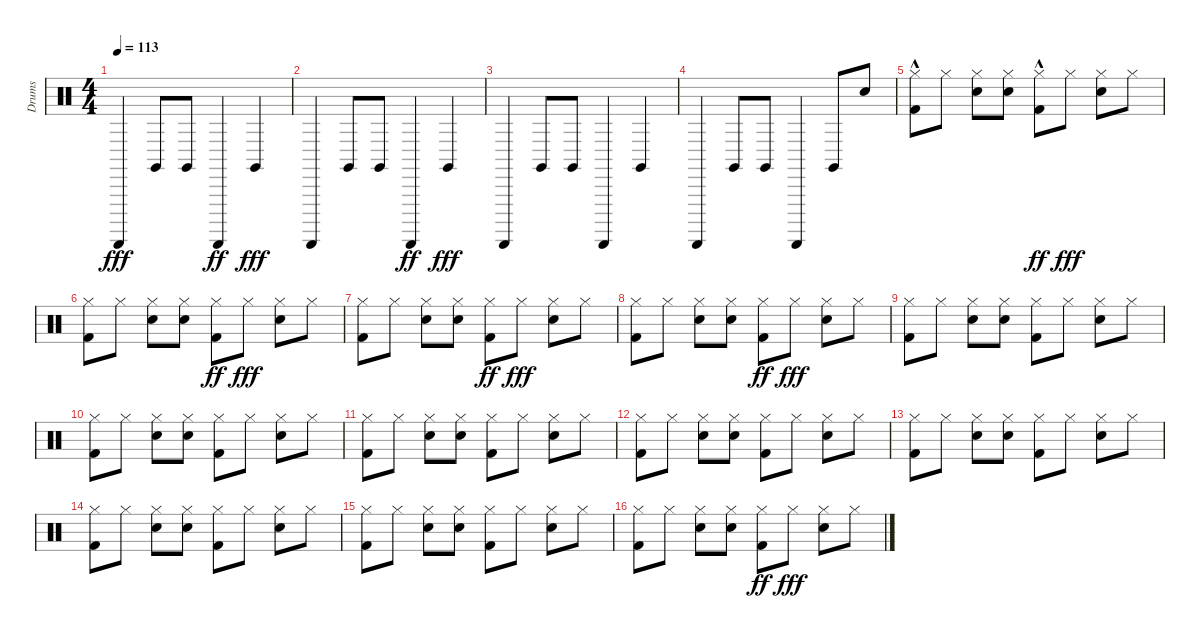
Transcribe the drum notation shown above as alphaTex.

\track ("Drums" "Drums") {instrument percussion}
\staff {score}
\articulation defaults
\ts (4 4)
\tempo 113
\clef neutral
\ks c "Guiro (scrap-return)".4{dy fff} "Claves (hit)".8 "Claves (hit)".8 "Guiro (scrap-return)".4{dy ff} "Claves (hit)".4{dy fff}
|
"Guiro (scrap-return)".4 "Claves (hit)".8 "Claves (hit)".8 "Guiro (scrap-return)".4{dy ff} "Claves (hit)".4{dy fff} |
"Guiro (scrap-return)".4 "Claves (hit)".8 "Claves (hit)".8 "Guiro (scrap-return)".4 "Claves (hit)".4 |
"Guiro (scrap-return)".4{volume 14 balance 8} "Claves (hit)".8 "Claves (hit)".8 "Guiro (scrap-return)".4 "Claves (hit)".8 "Electric Snare (hit)".8 |
("Hi-Hat (closed)" "Kick (hit) 2"{hac}).8 "Hi-Hat (closed)".8 ("Hi-Hat (closed)" "Electric Snare (hit)").8 ("Hi-Hat (closed)" "Electric Snare (hit)").8 ("Hi-Hat (closed)" "Kick (hit) 2"{hac}).8{dy ff} "Hi-Hat (closed)".8{dy fff} ("Hi-Hat (closed)" "Electric Snare (hit)").8 "Hi-Hat (closed)".8 |
("Hi-Hat (closed)" "Kick (hit) 2").8 "Hi-Hat (closed)".8 ("Hi-Hat (closed)" "Electric Snare (hit)").8 ("Hi-Hat (closed)" "Electric Snare (hit)").8 ("Hi-Hat (closed)" "Kick (hit) 2").8{dy ff} "Hi-Hat (closed)".8{dy fff} ("Hi-Hat (closed)" "Electric Snare (hit)").8 "Hi-Hat (closed)".8 |
("Hi-Hat (closed)" "Kick (hit) 2").8 "Hi-Hat (closed)".8 ("Hi-Hat (closed)" "Electric Snare (hit)").8 ("Hi-Hat (closed)" "Electric Snare (hit)").8 ("Hi-Hat (closed)" "Kick (hit) 2").8{dy ff} "Hi-Hat (closed)".8{dy fff} ("Hi-Hat (closed)" "Electric Snare (hit)").8 "Hi-Hat (closed)".8 |
("Hi-Hat (closed)" "Kick (hit) 2").8 "Hi-Hat (closed)".8 ("Hi-Hat (closed)" "Electric Snare (hit)").8 ("Hi-Hat (closed)" "Electric Snare (hit)").8 ("Hi-Hat (closed)" "Kick (hit) 2").8{dy ff} "Hi-Hat (closed)".8{dy fff} ("Hi-Hat (closed)" "Electric Snare (hit)").8 "Hi-Hat (closed)".8 |
("Hi-Hat (closed)" "Kick (hit) 2").8 "Hi-Hat (closed)".8 ("Hi-Hat (closed)" "Electric Snare (hit)").8 ("Hi-Hat (closed)" "Electric Snare (hit)").8 ("Hi-Hat (closed)" "Kick (hit) 2").8 "Hi-Hat (closed)".8 ("Hi-Hat (closed)" "Electric Snare (hit)").8 "Hi-Hat (closed)".8 |
("Hi-Hat (closed)" "Kick (hit) 2").8 "Hi-Hat (closed)".8 ("Hi-Hat (closed)" "Electric Snare (hit)").8 ("Hi-Hat (closed)" "Electric Snare (hit)").8 ("Hi-Hat (closed)" "Kick (hit) 2").8 "Hi-Hat (closed)".8 ("Hi-Hat (closed)" "Electric Snare (hit)").8 "Hi-Hat (closed)".8 |
("Hi-Hat (closed)" "Kick (hit) 2").8 "Hi-Hat (closed)".8 ("Hi-Hat (closed)" "Electric Snare (hit)").8 ("Hi-Hat (closed)" "Electric Snare (hit)").8 ("Hi-Hat (closed)" "Kick (hit) 2").8 "Hi-Hat (closed)".8 ("Hi-Hat (closed)" "Electric Snare (hit)").8 "Hi-Hat (closed)".8 |
("Hi-Hat (closed)" "Kick (hit) 2").8 "Hi-Hat (closed)".8 ("Hi-Hat (closed)" "Electric Snare (hit)").8 ("Hi-Hat (closed)" "Electric Snare (hit)").8 ("Hi-Hat (closed)" "Kick (hit) 2").8 "Hi-Hat (closed)".8 ("Hi-Hat (closed)" "Electric Snare (hit)").8 "Hi-Hat (closed)".8 |
("Hi-Hat (closed)" "Kick (hit) 2").8 "Hi-Hat (closed)".8 ("Hi-Hat (closed)" "Electric Snare (hit)").8 ("Hi-Hat (closed)" "Electric Snare (hit)").8 ("Hi-Hat (closed)" "Kick (hit) 2").8 "Hi-Hat (closed)".8 ("Hi-Hat (closed)" "Electric Snare (hit)").8 "Hi-Hat (closed)".8 |
("Hi-Hat (closed)" "Kick (hit) 2").8 "Hi-Hat (closed)".8 ("Hi-Hat (closed)" "Electric Snare (hit)").8 ("Hi-Hat (closed)" "Electric Snare (hit)").8 ("Hi-Hat (closed)" "Kick (hit) 2").8 "Hi-Hat (closed)".8 ("Hi-Hat (closed)" "Electric Snare (hit)").8 "Hi-Hat (closed)".8 |
("Hi-Hat (closed)" "Kick (hit) 2").8 "Hi-Hat (closed)".8 ("Hi-Hat (closed)" "Electric Snare (hit)").8 ("Hi-Hat (closed)" "Electric Snare (hit)").8 ("Hi-Hat (closed)" "Kick (hit) 2").8 "Hi-Hat (closed)".8 ("Hi-Hat (closed)" "Electric Snare (hit)").8 "Hi-Hat (closed)".8 |
("Hi-Hat (closed)" "Kick (hit) 2").8 "Hi-Hat (closed)".8 ("Hi-Hat (closed)" "Electric Snare (hit)").8 ("Hi-Hat (closed)" "Electric Snare (hit)").8 ("Hi-Hat (closed)" "Kick (hit) 2").8{dy ff} "Hi-Hat (closed)".8{dy fff} ("Hi-Hat (closed)" "Electric Snare (hit)").8 "Hi-Hat (closed)".8
